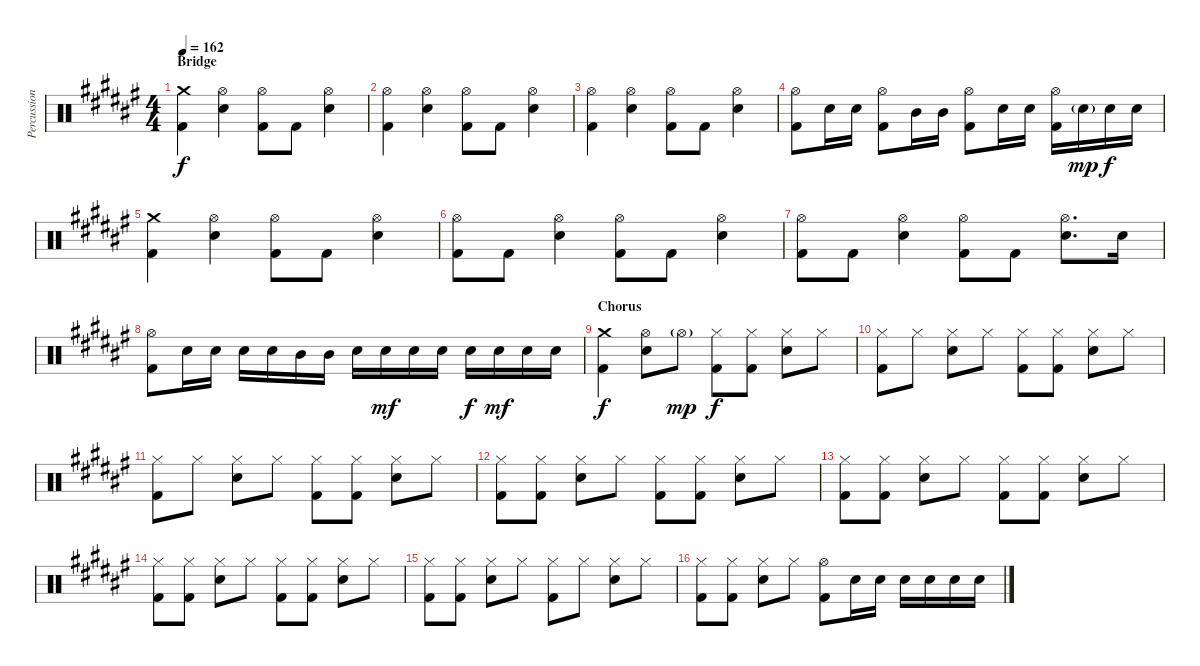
\track ("Percussion" "Percussion") {instrument percussion}
\staff {score}
\articulation defaults
\ts (4 4)
\section ("" "Bridge")
\tempo 162
\clef neutral
\ks f#
("Crash medium (hit)" "Kick (hit) 2").4{dy f} ("Hi-Hat (open)" "Electric Snare (hit)").4 ("Hi-Hat (open)" "Kick (hit) 2").8 "Kick (hit) 2".8 ("Hi-Hat (open)" "Electric Snare (hit)").4 |
("Hi-Hat (open)" "Kick (hit) 2").4 ("Hi-Hat (open)" "Electric Snare (hit)").4 ("Hi-Hat (open)" "Kick (hit) 2").8 "Kick (hit) 2".8 ("Hi-Hat (open)" "Electric Snare (hit)").4 |
("Hi-Hat (open)" "Kick (hit) 2").4 ("Hi-Hat (open)" "Electric Snare (hit)").4 ("Hi-Hat (open)" "Kick (hit) 2").8 "Kick (hit) 2".8 ("Hi-Hat (open)" "Electric Snare (hit)").4 |
("Hi-Hat (open)" "Kick (hit) 2").8 "Electric Snare (hit)".16 "Electric Snare (hit)".16 ("Hi-Hat (open)" "Kick (hit) 2").8 "Mid Tom (hit)".16 "Mid Tom (hit)".16 ("Hi-Hat (open)" "Kick (hit) 2").8 "Electric Snare (hit)".16 "Electric Snare (hit)".16 ("Hi-Hat (open)" "Kick (hit) 2").16 "Electric Snare (hit)"{g}.16{dy mp} "Electric Snare (hit)".16{dy f} "Electric Snare (hit)".16 |
("Crash medium (hit)" "Kick (hit) 2").4 ("Hi-Hat (open)" "Electric Snare (hit)").4 ("Hi-Hat (open)" "Kick (hit) 2").8 "Kick (hit) 2".8 ("Hi-Hat (open)" "Electric Snare (hit)").4 |
("Hi-Hat (open)" "Kick (hit) 2").8 "Kick (hit) 2".8 ("Hi-Hat (open)" "Electric Snare (hit)").4 ("Hi-Hat (open)" "Kick (hit) 2").8 "Kick (hit) 2".8 ("Hi-Hat (open)" "Electric Snare (hit)").4 |
("Hi-Hat (open)" "Kick (hit) 2").8 "Kick (hit) 2".8 ("Hi-Hat (open)" "Electric Snare (hit)").4 ("Hi-Hat (open)" "Kick (hit) 2").8 "Kick (hit) 2".8 ("Hi-Hat (open)" "Electric Snare (hit)").8{d} "Electric Snare (hit)".16 |
("Hi-Hat (open)" "Kick (hit) 2").8 "Electric Snare (hit)".16 "Electric Snare (hit)".16 "Electric Snare (hit)".16 "Electric Snare (hit)".16 "Mid Tom (hit)".16 "Mid Tom (hit)".16 "Electric Snare (hit)".16 "Electric Snare (hit)".16{dy mf} "Electric Snare (hit)".16 "Electric Snare (hit)".16 "Electric Snare (hit)".16{dy f} "Electric Snare (hit)".16{dy mf} "Electric Snare (hit)".16 "Electric Snare (hit)".16 |
\section ("" "Chorus")
("Crash medium (hit)" "Kick (hit) 2").4{dy f} ("Hi-Hat (open)" "Electric Snare (hit)").8 "Hi-Hat (open)"{g}.8{dy mp} ("Hi-Hat (closed)" "Kick (hit) 2").8{dy f} ("Hi-Hat (closed)" "Kick (hit) 2").8 ("Hi-Hat (closed)" "Electric Snare (hit)").8 "Hi-Hat (closed)".8 |
("Hi-Hat (closed)" "Kick (hit) 2").8 "Hi-Hat (closed)".8 ("Hi-Hat (closed)" "Electric Snare (hit)").8 "Hi-Hat (closed)".8 ("Hi-Hat (closed)" "Kick (hit) 2").8 ("Hi-Hat (closed)" "Kick (hit) 2").8 ("Hi-Hat (closed)" "Electric Snare (hit)").8 "Hi-Hat (closed)".8 |
("Hi-Hat (closed)" "Kick (hit) 2").8 "Hi-Hat (closed)".8 ("Hi-Hat (closed)" "Electric Snare (hit)").8 "Hi-Hat (closed)".8 ("Hi-Hat (closed)" "Kick (hit) 2").8 ("Hi-Hat (closed)" "Kick (hit) 2").8 ("Hi-Hat (closed)" "Electric Snare (hit)").8 "Hi-Hat (closed)".8 |
("Hi-Hat (closed)" "Kick (hit) 2").8 ("Hi-Hat (closed)" "Kick (hit) 2").8 ("Hi-Hat (closed)" "Electric Snare (hit)").8 "Hi-Hat (closed)".8 ("Hi-Hat (closed)" "Kick (hit) 2").8 ("Hi-Hat (closed)" "Kick (hit) 2").8 ("Hi-Hat (closed)" "Electric Snare (hit)").8 "Hi-Hat (closed)".8 |
("Hi-Hat (closed)" "Kick (hit) 2").8 ("Hi-Hat (closed)" "Kick (hit) 2").8 ("Hi-Hat (closed)" "Electric Snare (hit)").8 "Hi-Hat (closed)".8 ("Hi-Hat (closed)" "Kick (hit) 2").8 ("Hi-Hat (closed)" "Kick (hit) 2").8 ("Hi-Hat (closed)" "Electric Snare (hit)").8 "Hi-Hat (closed)".8 |
("Hi-Hat (closed)" "Kick (hit) 2").8 ("Hi-Hat (closed)" "Kick (hit) 2").8 ("Hi-Hat (closed)" "Electric Snare (hit)").8 "Hi-Hat (closed)".8 ("Hi-Hat (closed)" "Kick (hit) 2").8 ("Hi-Hat (closed)" "Kick (hit) 2").8 ("Hi-Hat (closed)" "Electric Snare (hit)").8 "Hi-Hat (closed)".8 |
("Hi-Hat (closed)" "Kick (hit) 2").8 ("Hi-Hat (closed)" "Kick (hit) 2").8 ("Hi-Hat (closed)" "Electric Snare (hit)").8 "Hi-Hat (closed)".8 ("Hi-Hat (closed)" "Kick (hit) 2").8 "Hi-Hat (closed)".8 ("Hi-Hat (closed)" "Electric Snare (hit)").8 "Hi-Hat (closed)".8 |
("Hi-Hat (closed)" "Kick (hit) 2").8 ("Hi-Hat (closed)" "Kick (hit) 2").8 ("Hi-Hat (closed)" "Electric Snare (hit)").8 "Hi-Hat (closed)".8 ("Hi-Hat (open)" "Kick (hit) 2").8 "Electric Snare (hit)".16 "Electric Snare (hit)".16 "Electric Snare (hit)".16 "Electric Snare (hit)".16 "Electric Snare (hit)".16 "Electric Snare (hit)".16
